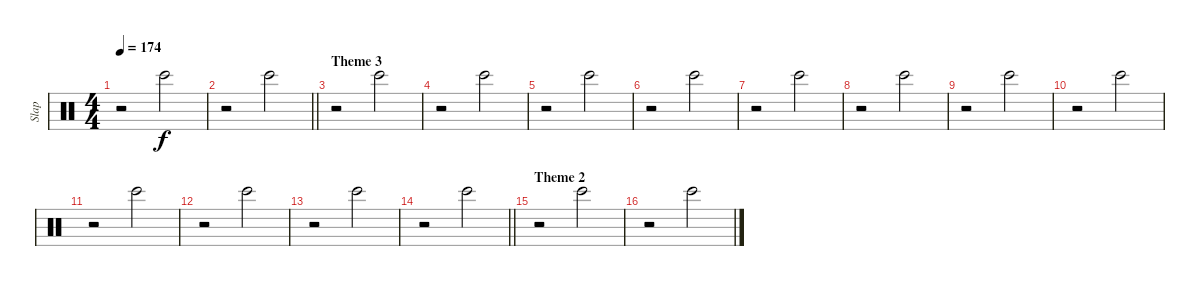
\track ("Slap" "Slap") {instrument percussion}
\staff {score}
\articulation defaults
\ts (4 4)
\tempo 174
\clef neutral
\ks c
r.2{dy f} "Bongo High (hit)".2 |
\barLineRight lightlight
r.2 "Bongo High (hit)".2 |
\section ("" "Theme 3")
r.2 "Bongo High (hit)".2 |
r.2 "Bongo High (hit)".2 |
r.2 "Bongo High (hit)".2 |
r.2 "Bongo High (hit)".2 |
r.2 "Bongo High (hit)".2 |
r.2 "Bongo High (hit)".2 |
r.2 "Bongo High (hit)".2 |
r.2 "Bongo High (hit)".2 |
r.2 "Bongo High (hit)".2 |
r.2 "Bongo High (hit)".2 |
r.2 "Bongo High (hit)".2 |
\barLineRight lightlight
r.2 "Bongo High (hit)".2 |
\section ("" "Theme 2")
r.2 "Bongo High (hit)".2 |
r.2 "Bongo High (hit)".2
